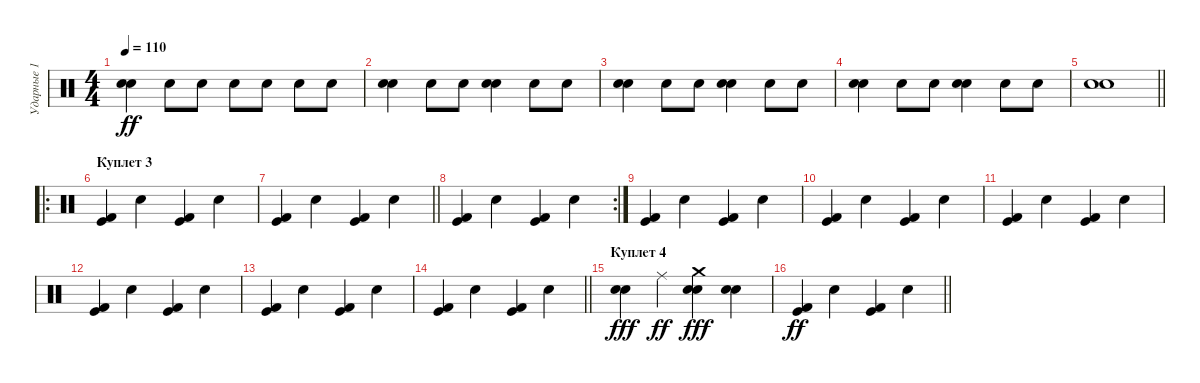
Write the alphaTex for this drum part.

\track ("Ударные 1" "Ударные 1") {instrument percussion}
\staff {score}
\articulation defaults
\ts (4 4)
\tempo 110
\clef neutral
\ks c
("Snare (hit) 2" "Electric Snare (hit)").4{dy ff} "Electric Snare (hit)".8 "Electric Snare (hit)".8 "Electric Snare (hit)".8 "Electric Snare (hit)".8 "Electric Snare (hit)".8 "Electric Snare (hit)".8 |
("Snare (hit) 2" "Electric Snare (hit)").4 "Electric Snare (hit)".8 "Electric Snare (hit)".8 ("Snare (hit) 2" "Electric Snare (hit)").4 "Electric Snare (hit)".8 "Electric Snare (hit)".8 |
("Snare (hit) 2" "Electric Snare (hit)").4 "Electric Snare (hit)".8 "Electric Snare (hit)".8 ("Snare (hit) 2" "Electric Snare (hit)").4 "Electric Snare (hit)".8 "Electric Snare (hit)".8 |
("Snare (hit) 2" "Electric Snare (hit)").4 "Electric Snare (hit)".8 "Electric Snare (hit)".8 ("Snare (hit) 2" "Electric Snare (hit)").4 "Electric Snare (hit)".8 "Electric Snare (hit)".8 |
\barLineRight lightlight
("Snare (hit) 2" "Electric Snare (hit)").1 |
\ro
\section ("" "Куплет 3")
("Kick (hit) 2" "Kick (hit)").4 "Snare (hit) 2".4 ("Kick (hit) 2" "Kick (hit)").4 "Snare (hit) 2".4 |
\barLineRight lightlight
("Kick (hit) 2" "Kick (hit)").4 "Snare (hit) 2".4 ("Kick (hit) 2" "Kick (hit)").4 "Snare (hit) 2".4 |
\rc 2
("Kick (hit) 2" "Kick (hit)").4 "Snare (hit) 2".4 ("Kick (hit) 2" "Kick (hit)").4 "Snare (hit) 2".4 |
("Kick (hit) 2" "Kick (hit)").4 "Snare (hit) 2".4 ("Kick (hit) 2" "Kick (hit)").4 "Snare (hit) 2".4 |
("Kick (hit) 2" "Kick (hit)").4 "Snare (hit) 2".4 ("Kick (hit) 2" "Kick (hit)").4 "Snare (hit) 2".4 |
("Kick (hit) 2" "Kick (hit)").4 "Snare (hit) 2".4 ("Kick (hit) 2" "Kick (hit)").4 "Snare (hit) 2".4 |
("Kick (hit) 2" "Kick (hit)").4 "Snare (hit) 2".4 ("Kick (hit) 2" "Kick (hit)").4 "Snare (hit) 2".4 |
("Kick (hit) 2" "Kick (hit)").4 "Snare (hit) 2".4 ("Kick (hit) 2" "Kick (hit)").4 "Snare (hit) 2".4 |
\barLineRight lightlight
("Kick (hit) 2" "Kick (hit)").4 "Snare (hit) 2".4 ("Kick (hit) 2" "Kick (hit)").4 "Snare (hit) 2".4 |
\section ("" "Куплет 4")
("Snare (hit) 2" "Electric Snare (hit)").4{dy fff} "Ride (middle)".4{dy ff} ("Snare (hit) 2" "Electric Snare (hit)" "Crash medium (hit)").4{dy fff} ("Snare (hit) 2" "Electric Snare (hit)").4 |
\barLineRight lightlight
("Kick (hit) 2" "Kick (hit)").4{dy ff} "Snare (hit) 2".4 ("Kick (hit) 2" "Kick (hit)").4 "Snare (hit) 2".4
